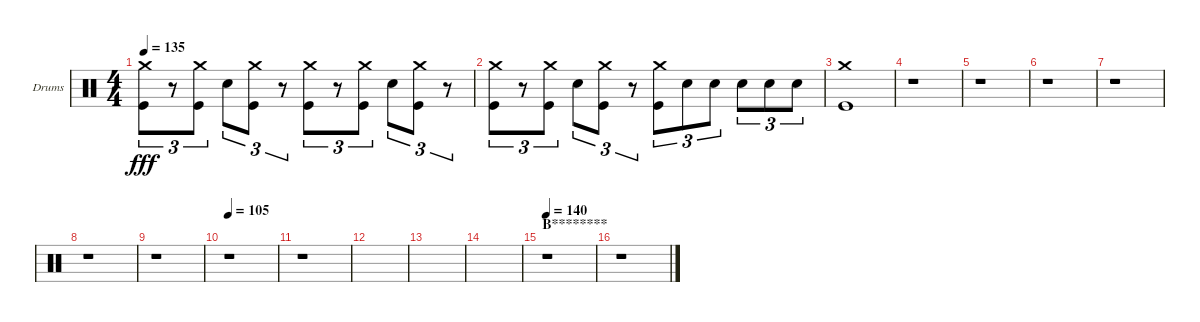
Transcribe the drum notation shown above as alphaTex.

\bracketExtendMode groupsimilarinstruments
\firstSystemTrackNameOrientation horizontal
\otherSystemsTrackNameOrientation horizontal
\track ("Drumkit (Christoph)" "Drums") {instrument percussion}
\staff {score}
\articulation defaults
\ts (4 4)
\tempo 135
\clef neutral
\ks c
("Crash medium (hit)" "Kick (hit)").8{tu (3 2) dy fff} r.8{tu (3 2)} ("Crash medium (hit)" "Kick (hit)").8{tu (3 2)} "Snare (hit) 2".8{tu (3 2)} ("Crash medium (hit)" "Kick (hit)").8{tu (3 2)} r.8{tu (3 2)} ("Crash medium (hit)" "Kick (hit)").8{tu (3 2)} r.8{tu (3 2)} ("Crash medium (hit)" "Kick (hit)").8{tu (3 2)} "Snare (hit) 2".8{tu (3 2)} ("Crash medium (hit)" "Kick (hit)").8{tu (3 2)} r.8{tu (3 2)} |
("Crash medium (hit)" "Kick (hit)").8{tu (3 2)} r.8{tu (3 2)} ("Crash medium (hit)" "Kick (hit)").8{tu (3 2)} "Snare (hit) 2".8{tu (3 2)} ("Crash medium (hit)" "Kick (hit)").8{tu (3 2)} r.8{tu (3 2)} ("Crash medium (hit)" "Kick (hit)").8{tu (3 2)} "Snare (hit) 2".8{tu (3 2)} "Snare (hit) 2".8{tu (3 2)} "Snare (hit) 2".8{tu (3 2)} "Snare (hit) 2".8{tu (3 2)} "Snare (hit) 2".8{tu (3 2)} |
("Crash medium (hit)" "Kick (hit)").1 |
r.1 |
r.1 |
r.1 |
r.1 |
r.1 |
r.1 |
\tempo 105
r.1 |
r.1 |
|
|
|
\section ("" "B********")
\tempo 140
r.1 |
r.1
